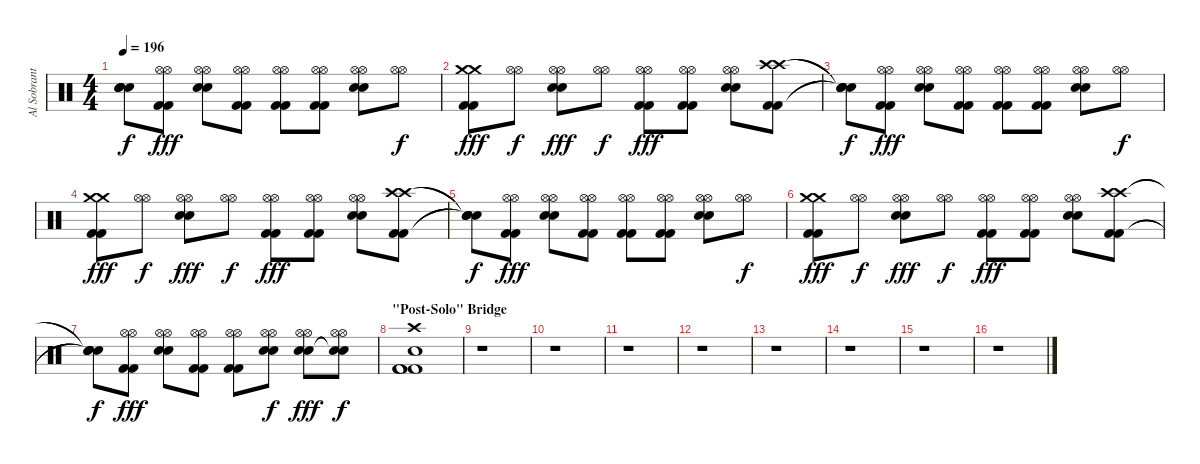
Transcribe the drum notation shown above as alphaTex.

\track ("Al Sobrante (Drums)" "Al Sobrant") {instrument percussion}
\staff {score}
\articulation defaults
\ts (4 4)
\tempo 196
\clef neutral
\ks c
("Snare (hit)"{t} "Snare (hit)"{t} "Snare (hit)"{t} "Snare (hit)"{t}).8{dy f} ("Kick (hit) 2" "Kick (hit) 2" "Hi-Hat (open)" "Hi-Hat (open)").8{dy fff} ("Electric Snare (hit)" "Electric Snare (hit)" "Hi-Hat (open)" "Hi-Hat (open)").8 ("Kick (hit) 2" "Kick (hit) 2" "Hi-Hat (open)" "Hi-Hat (open)").8 ("Kick (hit) 2" "Kick (hit) 2" "Hi-Hat (open)" "Hi-Hat (open)").8 ("Kick (hit) 2" "Kick (hit) 2" "Hi-Hat (open)" "Hi-Hat (open)").8 ("Electric Snare (hit)" "Electric Snare (hit)" "Hi-Hat (open)" "Hi-Hat (open)").8 ("Hi-Hat (open)" "Hi-Hat (open)").8{dy f} |
("Kick (hit) 2" "Kick (hit) 2" "Crash medium (hit)" "Crash medium (hit)").8{dy fff} ("Hi-Hat (open)" "Hi-Hat (open)").8{dy f} ("Electric Snare (hit)" "Electric Snare (hit)" "Hi-Hat (open)" "Hi-Hat (open)").8{dy fff} ("Hi-Hat (open)" "Hi-Hat (open)").8{dy f} ("Kick (hit) 2" "Kick (hit) 2" "Hi-Hat (open)" "Hi-Hat (open)").8{dy fff} ("Kick (hit) 2" "Kick (hit) 2" "Hi-Hat (open)" "Hi-Hat (open)").8 ("Electric Snare (hit)" "Electric Snare (hit)" "Hi-Hat (open)" "Hi-Hat (open)").8 ("Kick (hit) 2" "Kick (hit) 2" "Crash high (hit)" "Crash high (hit)").8 |
("Snare (hit)"{t} "Snare (hit)"{t} "Snare (hit)"{t} "Snare (hit)"{t}).8{dy f} ("Kick (hit) 2" "Kick (hit) 2" "Hi-Hat (open)" "Hi-Hat (open)").8{dy fff} ("Electric Snare (hit)" "Electric Snare (hit)" "Hi-Hat (open)" "Hi-Hat (open)").8 ("Kick (hit) 2" "Kick (hit) 2" "Hi-Hat (open)" "Hi-Hat (open)").8 ("Kick (hit) 2" "Kick (hit) 2" "Hi-Hat (open)" "Hi-Hat (open)").8 ("Kick (hit) 2" "Kick (hit) 2" "Hi-Hat (open)" "Hi-Hat (open)").8 ("Electric Snare (hit)" "Electric Snare (hit)" "Hi-Hat (open)" "Hi-Hat (open)").8 ("Hi-Hat (open)" "Hi-Hat (open)").8{dy f} |
("Kick (hit) 2" "Kick (hit) 2" "Crash medium (hit)" "Crash medium (hit)").8{dy fff} ("Hi-Hat (open)" "Hi-Hat (open)").8{dy f} ("Electric Snare (hit)" "Electric Snare (hit)" "Hi-Hat (open)" "Hi-Hat (open)").8{dy fff} ("Hi-Hat (open)" "Hi-Hat (open)").8{dy f} ("Kick (hit) 2" "Kick (hit) 2" "Hi-Hat (open)" "Hi-Hat (open)").8{dy fff} ("Kick (hit) 2" "Kick (hit) 2" "Hi-Hat (open)" "Hi-Hat (open)").8 ("Electric Snare (hit)" "Electric Snare (hit)" "Hi-Hat (open)" "Hi-Hat (open)").8 ("Kick (hit) 2" "Kick (hit) 2" "Crash high (hit)" "Crash high (hit)").8 |
("Snare (hit)"{t} "Snare (hit)"{t} "Snare (hit)"{t} "Snare (hit)"{t}).8{dy f} ("Kick (hit) 2" "Kick (hit) 2" "Hi-Hat (open)" "Hi-Hat (open)").8{dy fff} ("Electric Snare (hit)" "Electric Snare (hit)" "Hi-Hat (open)" "Hi-Hat (open)").8 ("Kick (hit) 2" "Kick (hit) 2" "Hi-Hat (open)" "Hi-Hat (open)").8 ("Kick (hit) 2" "Kick (hit) 2" "Hi-Hat (open)" "Hi-Hat (open)").8 ("Kick (hit) 2" "Kick (hit) 2" "Hi-Hat (open)" "Hi-Hat (open)").8 ("Electric Snare (hit)" "Electric Snare (hit)" "Hi-Hat (open)" "Hi-Hat (open)").8 ("Hi-Hat (open)" "Hi-Hat (open)").8{dy f} |
("Kick (hit) 2" "Kick (hit) 2" "Crash medium (hit)" "Crash medium (hit)").8{dy fff} ("Hi-Hat (open)" "Hi-Hat (open)").8{dy f} ("Electric Snare (hit)" "Electric Snare (hit)" "Hi-Hat (open)" "Hi-Hat (open)").8{dy fff} ("Hi-Hat (open)" "Hi-Hat (open)").8{dy f} ("Kick (hit) 2" "Kick (hit) 2" "Hi-Hat (open)" "Hi-Hat (open)").8{dy fff} ("Kick (hit) 2" "Kick (hit) 2" "Hi-Hat (open)" "Hi-Hat (open)").8 ("Electric Snare (hit)" "Electric Snare (hit)" "Hi-Hat (open)" "Hi-Hat (open)").8 ("Kick (hit) 2" "Kick (hit) 2" "Crash high (hit)" "Crash high (hit)").8 |
("Snare (hit)"{t} "Snare (hit)"{t} "Snare (hit)"{t} "Snare (hit)"{t}).8{dy f} ("Kick (hit) 2" "Kick (hit) 2" "Hi-Hat (open)" "Hi-Hat (open)").8{dy fff} ("Electric Snare (hit)" "Electric Snare (hit)" "Hi-Hat (open)" "Hi-Hat (open)").8 ("Kick (hit) 2" "Kick (hit) 2" "Hi-Hat (open)" "Hi-Hat (open)").8 ("Kick (hit) 2" "Kick (hit) 2" "Hi-Hat (open)" "Hi-Hat (open)").8 ("Electric Snare (hit)" "Electric Snare (hit)" "Hi-Hat (open)" "Hi-Hat (open)").8{dy f} ("Electric Snare (hit)"{tr (38 32)} "Snare (hit) 2"{tr (40 32)} "Hi-Hat (open)" "Hi-Hat (open)").8{dy fff} ("Electric Snare (hit)"{t} "Electric Snare (hit)"{t} "Hi-Hat (open)" "Hi-Hat (open)").8{dy f} |
\section ("" "\"Post-Solo\" Bridge")
("Kick (hit) 2" "Kick (hit) 2" "Electric Snare (hit)" "Kick (hit) 2" "Crash high (hit)").1 |
r.1 |
r.1 |
r.1 |
r.1 |
r.1 |
r.1 |
r.1 |
r.1
